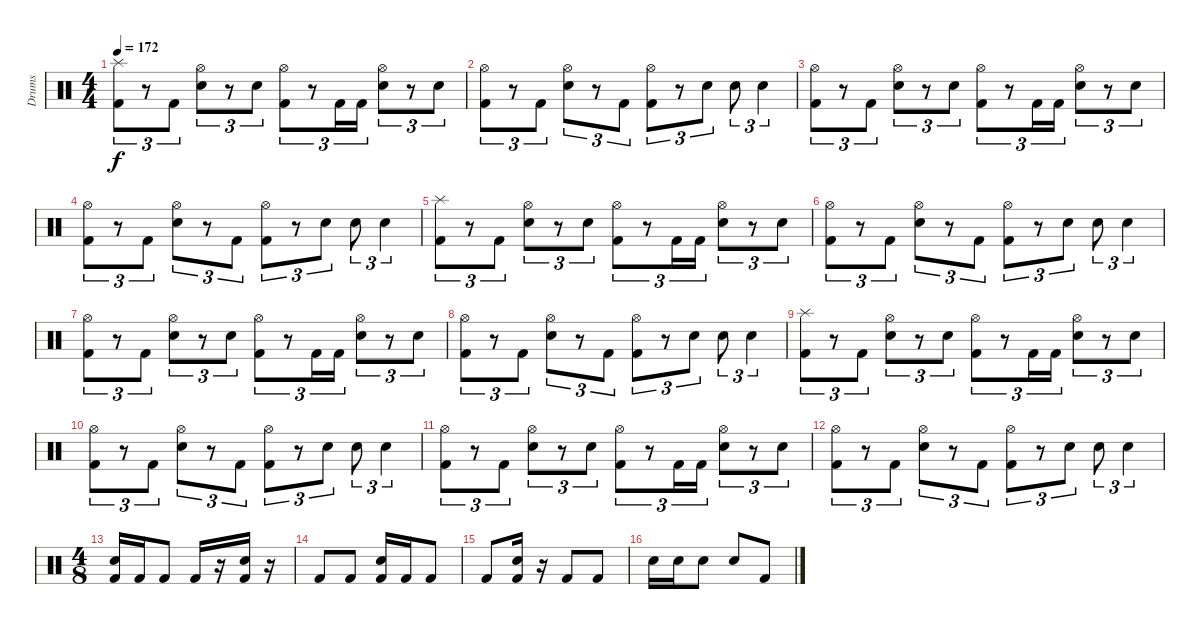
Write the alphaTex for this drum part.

\track ("Drums" "Drums") {instrument percussion}
\staff {score}
\articulation defaults
\ts (4 4)
\tempo 172
\clef neutral
\ks c
("Splash (hit)" "Kick (hit) 2").8{tu (3 2) dy f} r.8{tu (3 2)} "Kick (hit) 2".8{tu (3 2)} ("Hi-Hat (open)" "Snare (hit) 2").8{tu (3 2)} r.8{tu (3 2)} "Snare (hit) 2".8{tu (3 2)} ("Hi-Hat (open)" "Kick (hit) 2").8{tu (3 2)} r.8{tu (3 2)} "Kick (hit) 2".16{tu (3 2)} "Kick (hit) 2".16{tu (3 2)} ("Hi-Hat (open)" "Snare (hit) 2").8{tu (3 2)} r.8{tu (3 2)} "Snare (hit) 2".8{tu (3 2)} |
("Hi-Hat (open)" "Kick (hit) 2").8{tu (3 2)} r.8{tu (3 2)} "Kick (hit) 2".8{tu (3 2)} ("Hi-Hat (open)" "Snare (hit) 2").8{tu (3 2)} r.8{tu (3 2)} "Kick (hit) 2".8{tu (3 2)} ("Hi-Hat (open)" "Kick (hit) 2").8{tu (3 2)} r.8{tu (3 2)} "Snare (hit) 2".8{tu (3 2)} "Snare (hit) 2".8{tu (3 2)} "Snare (hit) 2".4{tu (3 2)} |
("Hi-Hat (open)" "Kick (hit) 2").8{tu (3 2)} r.8{tu (3 2)} "Kick (hit) 2".8{tu (3 2)} ("Hi-Hat (open)" "Snare (hit) 2").8{tu (3 2)} r.8{tu (3 2)} "Snare (hit) 2".8{tu (3 2)} ("Hi-Hat (open)" "Kick (hit) 2").8{tu (3 2)} r.8{tu (3 2)} "Kick (hit) 2".16{tu (3 2)} "Kick (hit) 2".16{tu (3 2)} ("Hi-Hat (open)" "Snare (hit) 2").8{tu (3 2)} r.8{tu (3 2)} "Snare (hit) 2".8{tu (3 2)} |
("Hi-Hat (open)" "Kick (hit) 2").8{tu (3 2)} r.8{tu (3 2)} "Kick (hit) 2".8{tu (3 2)} ("Hi-Hat (open)" "Snare (hit) 2").8{tu (3 2)} r.8{tu (3 2)} "Kick (hit) 2".8{tu (3 2)} ("Hi-Hat (open)" "Kick (hit) 2").8{tu (3 2)} r.8{tu (3 2)} "Snare (hit) 2".8{tu (3 2)} "Snare (hit) 2".8{tu (3 2)} "Snare (hit) 2".4{tu (3 2)} |
("Splash (hit)" "Kick (hit) 2").8{tu (3 2)} r.8{tu (3 2)} "Kick (hit) 2".8{tu (3 2)} ("Hi-Hat (open)" "Snare (hit) 2").8{tu (3 2)} r.8{tu (3 2)} "Snare (hit) 2".8{tu (3 2)} ("Hi-Hat (open)" "Kick (hit) 2").8{tu (3 2)} r.8{tu (3 2)} "Kick (hit) 2".16{tu (3 2)} "Kick (hit) 2".16{tu (3 2)} ("Hi-Hat (open)" "Snare (hit) 2").8{tu (3 2)} r.8{tu (3 2)} "Snare (hit) 2".8{tu (3 2)} |
("Hi-Hat (open)" "Kick (hit) 2").8{tu (3 2)} r.8{tu (3 2)} "Kick (hit) 2".8{tu (3 2)} ("Hi-Hat (open)" "Snare (hit) 2").8{tu (3 2)} r.8{tu (3 2)} "Kick (hit) 2".8{tu (3 2)} ("Hi-Hat (open)" "Kick (hit) 2").8{tu (3 2)} r.8{tu (3 2)} "Snare (hit) 2".8{tu (3 2)} "Snare (hit) 2".8{tu (3 2)} "Snare (hit) 2".4{tu (3 2)} |
("Hi-Hat (open)" "Kick (hit) 2").8{tu (3 2)} r.8{tu (3 2)} "Kick (hit) 2".8{tu (3 2)} ("Hi-Hat (open)" "Snare (hit) 2").8{tu (3 2)} r.8{tu (3 2)} "Snare (hit) 2".8{tu (3 2)} ("Hi-Hat (open)" "Kick (hit) 2").8{tu (3 2)} r.8{tu (3 2)} "Kick (hit) 2".16{tu (3 2)} "Kick (hit) 2".16{tu (3 2)} ("Hi-Hat (open)" "Snare (hit) 2").8{tu (3 2)} r.8{tu (3 2)} "Snare (hit) 2".8{tu (3 2)} |
("Hi-Hat (open)" "Kick (hit) 2").8{tu (3 2)} r.8{tu (3 2)} "Kick (hit) 2".8{tu (3 2)} ("Hi-Hat (open)" "Snare (hit) 2").8{tu (3 2)} r.8{tu (3 2)} "Kick (hit) 2".8{tu (3 2)} ("Hi-Hat (open)" "Kick (hit) 2").8{tu (3 2)} r.8{tu (3 2)} "Snare (hit) 2".8{tu (3 2)} "Snare (hit) 2".8{tu (3 2)} "Snare (hit) 2".4{tu (3 2)} |
("Splash (hit)" "Kick (hit) 2").8{tu (3 2)} r.8{tu (3 2)} "Kick (hit) 2".8{tu (3 2)} ("Hi-Hat (open)" "Snare (hit) 2").8{tu (3 2)} r.8{tu (3 2)} "Snare (hit) 2".8{tu (3 2)} ("Hi-Hat (open)" "Kick (hit) 2").8{tu (3 2)} r.8{tu (3 2)} "Kick (hit) 2".16{tu (3 2)} "Kick (hit) 2".16{tu (3 2)} ("Hi-Hat (open)" "Snare (hit) 2").8{tu (3 2)} r.8{tu (3 2)} "Snare (hit) 2".8{tu (3 2)} |
("Hi-Hat (open)" "Kick (hit) 2").8{tu (3 2)} r.8{tu (3 2)} "Kick (hit) 2".8{tu (3 2)} ("Hi-Hat (open)" "Snare (hit) 2").8{tu (3 2)} r.8{tu (3 2)} "Kick (hit) 2".8{tu (3 2)} ("Hi-Hat (open)" "Kick (hit) 2").8{tu (3 2)} r.8{tu (3 2)} "Snare (hit) 2".8{tu (3 2)} "Snare (hit) 2".8{tu (3 2)} "Snare (hit) 2".4{tu (3 2)} |
("Hi-Hat (open)" "Kick (hit) 2").8{tu (3 2)} r.8{tu (3 2)} "Kick (hit) 2".8{tu (3 2)} ("Hi-Hat (open)" "Snare (hit) 2").8{tu (3 2)} r.8{tu (3 2)} "Snare (hit) 2".8{tu (3 2)} ("Hi-Hat (open)" "Kick (hit) 2").8{tu (3 2)} r.8{tu (3 2)} "Kick (hit) 2".16{tu (3 2)} "Kick (hit) 2".16{tu (3 2)} ("Hi-Hat (open)" "Snare (hit) 2").8{tu (3 2)} r.8{tu (3 2)} "Snare (hit) 2".8{tu (3 2)} |
("Hi-Hat (open)" "Kick (hit) 2").8{tu (3 2)} r.8{tu (3 2)} "Kick (hit) 2".8{tu (3 2)} ("Hi-Hat (open)" "Snare (hit) 2").8{tu (3 2)} r.8{tu (3 2)} "Kick (hit) 2".8{tu (3 2)} ("Hi-Hat (open)" "Kick (hit) 2").8{tu (3 2)} r.8{tu (3 2)} "Snare (hit) 2".8{tu (3 2)} "Snare (hit) 2".8{tu (3 2)} "Snare (hit) 2".4{tu (3 2)} |
\ts (4 8)
("Snare (hit) 2" "Kick (hit) 2").16 "Kick (hit) 2".16 "Kick (hit) 2".8 "Kick (hit) 2".16 r.16 ("Snare (hit) 2" "Kick (hit) 2").16 r.16 |
"Kick (hit) 2".8 "Kick (hit) 2".8 ("Snare (hit) 2" "Kick (hit) 2").16 "Kick (hit) 2".16 "Kick (hit) 2".8 |
"Kick (hit) 2".8 ("Snare (hit) 2" "Kick (hit) 2").16 r.16 "Kick (hit) 2".8 "Kick (hit) 2".8 |
"Snare (hit) 2".16 "Snare (hit) 2".16 "Snare (hit) 2".8 "Snare (hit) 2".8 "Kick (hit) 2".8
